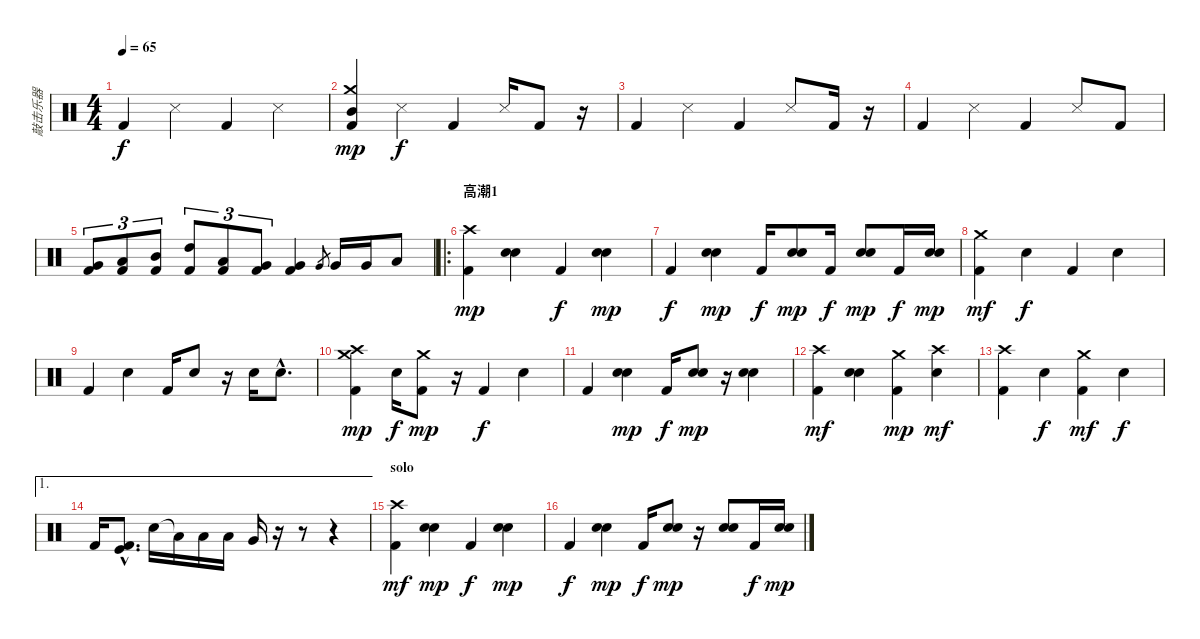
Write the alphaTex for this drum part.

\track ("敲击乐器" "敲击乐器") {instrument percussion}
\staff {score}
\articulation defaults
\ts (4 4)
\tempo 65
\clef neutral
\ks c "Kick (hit) 2".4{dy f} "Snare (side stick) 3".4 "Kick (hit) 2".4 "Snare (side stick) 3".4
|
("Crash medium (hit)" "Kick (hit) 2" "Mid Tom (hit)").4{dy mp} "Snare (side stick) 3".4{dy f} "Kick (hit) 2".4 "Snare (side stick) 3".16 "Kick (hit) 2".8 r.16 |
"Kick (hit) 2".4 "Snare (side stick) 3".4 "Kick (hit) 2".4 "Snare (side stick) 3".8 "Kick (hit) 2".16 r.16 |
"Kick (hit) 2".4 "Snare (side stick) 3".4 "Kick (hit) 2".4 "Snare (side stick) 3".8 "Kick (hit) 2".8 |
("Kick (hit) 2" "Very Low Tom (hit)").8{tu (3 2)} ("Kick (hit) 2" "Low Tom (hit)").8{tu (3 2)} ("Kick (hit) 2" "Mid Tom (hit)").8{tu (3 2)} ("Kick (hit) 2" "High Tom (hit)").8{tu (3 2)} ("Kick (hit) 2" "Low Tom (hit)").8{tu (3 2)} ("Kick (hit) 2" "Very Low Tom (hit)").8{tu (3 2)} ("Kick (hit) 2" "Very Low Tom (hit)").4 "Very Low Tom (hit)".8{gr} "Very Low Tom (hit)".16 "Very Low Tom (hit)".16 "Low Tom (hit)".8 |
\ro
\section ("" "高潮1")
("Kick (hit) 2" "Crash high (hit)").4{dy mp} ("Snare (hit) 2" "Electric Snare (hit)").4 "Kick (hit) 2".4{dy f} ("Snare (hit) 2" "Electric Snare (hit)").4{dy mp} |
"Kick (hit) 2".4{dy f} ("Electric Snare (hit)" "Snare (hit) 2").4{dy mp} "Kick (hit) 2".16{dy f} ("Electric Snare (hit)" "Snare (hit) 2").8{dy mp} "Kick (hit) 2".16{dy f} ("Electric Snare (hit)" "Snare (hit) 2").8{dy mp} "Kick (hit) 2".16{dy f} ("Electric Snare (hit)" "Snare (hit) 2").16{dy mp} |
("Crash medium (hit)" "Kick (hit) 2").4{dy mf} "Snare (hit) 2".4{dy f} "Kick (hit) 2".4 "Snare (hit) 2".4 |
"Kick (hit) 2".4 "Snare (hit) 2".4 "Kick (hit) 2".16 "Snare (hit) 2".8 r.16 "Snare (hit) 2".16 "Snare (hit) 2"{hac}.8{d} |
("Crash high (hit)" "Crash medium (hit)" "Kick (hit) 2").4{dy mp} "Snare (hit) 2".16{dy f} ("Crash medium (hit)" "Kick (hit) 2").8{dy mp} r.16 "Kick (hit) 2".4{dy f} "Snare (hit) 2".4 |
"Kick (hit) 2".4 ("Electric Snare (hit)" "Snare (hit) 2").4{dy mp} "Kick (hit) 2".16{dy f} ("Electric Snare (hit)" "Snare (hit) 2").8{dy mp} r.16 ("Electric Snare (hit)" "Snare (hit) 2").4 |
("Crash high (hit)" "Kick (hit) 2").4{dy mf} ("Electric Snare (hit)" "Snare (hit) 2").4 ("Crash medium (hit)" "Kick (hit) 2").4{dy mp} ("Crash high (hit)" "Snare (hit) 2").4{dy mf} |
("Crash high (hit)" "Kick (hit) 2").4 "Snare (hit) 2".4{dy f} ("Crash medium (hit)" "Kick (hit) 2").4{dy mf} "Snare (hit) 2".4{dy f} |
\ae 1 "Kick (hit) 2".16
("Kick (hit) 2"{hac} "Kick (hit)"{hac}).8{d} "Snare (hit) 2".16 "Low Tom (hit)"{t}.16 "Low Tom (hit)".16 "Low Tom (hit)".16 "Very Low Tom (hit)".16 r.16 r.8 r.4 |
\section ("" "solo")
("Crash high (hit)" "Kick (hit) 2").4{dy mf} ("Electric Snare (hit)" "Snare (hit) 2").4{dy mp} "Kick (hit) 2".4{dy f} ("Electric Snare (hit)" "Snare (hit) 2").4{dy mp} |
"Kick (hit) 2".4{dy f} ("Electric Snare (hit)" "Snare (hit) 2").4{dy mp} "Kick (hit) 2".16{dy f} ("Electric Snare (hit)" "Snare (hit) 2").8{dy mp} r.16 ("Electric Snare (hit)" "Snare (hit) 2").8 "Kick (hit) 2".16{dy f} ("Electric Snare (hit)" "Snare (hit) 2").16{dy mp}
